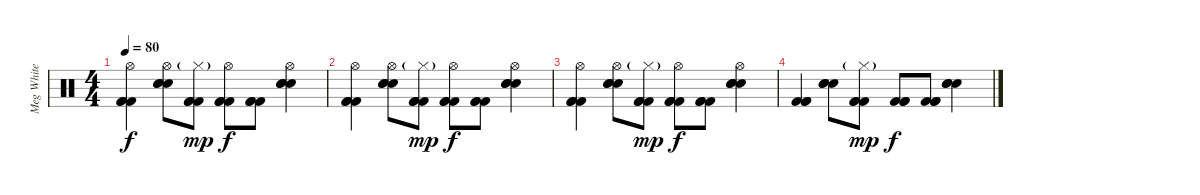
\track ("Meg White" "Meg White") {instrument percussion}
\staff {score}
\articulation defaults
\ts (4 4)
\tempo 80
\clef neutral
\ks c
("Hi-Hat (open)" "Kick (hit) 2" "Kick (hit) 2" "Kick (hit) 2").4{dy f} ("Hi-Hat (open)" "Electric Snare (hit)" "Electric Snare (hit)" "Electric Snare (hit)").8 ("Hi-Hat (closed)"{g} "Kick (hit) 2" "Kick (hit) 2" "Kick (hit) 2").8{dy mp} ("Hi-Hat (open)" "Kick (hit) 2" "Kick (hit) 2" "Kick (hit) 2").8{dy f} ("Kick (hit) 2" "Kick (hit) 2" "Kick (hit) 2").8 ("Hi-Hat (open)" "Electric Snare (hit)" "Electric Snare (hit)" "Electric Snare (hit)").4 |
("Hi-Hat (open)" "Kick (hit) 2" "Kick (hit) 2" "Kick (hit) 2").4 ("Hi-Hat (open)" "Electric Snare (hit)" "Electric Snare (hit)" "Electric Snare (hit)").8 ("Hi-Hat (closed)"{g} "Kick (hit) 2" "Kick (hit) 2" "Kick (hit) 2").8{dy mp} ("Hi-Hat (open)" "Kick (hit) 2" "Kick (hit) 2" "Kick (hit) 2").8{dy f} ("Kick (hit) 2" "Kick (hit) 2" "Kick (hit) 2").8 ("Hi-Hat (open)" "Electric Snare (hit)" "Electric Snare (hit)" "Electric Snare (hit)").4 |
("Hi-Hat (open)" "Kick (hit) 2" "Kick (hit) 2" "Kick (hit) 2").4 ("Hi-Hat (open)" "Electric Snare (hit)" "Electric Snare (hit)" "Electric Snare (hit)").8 ("Hi-Hat (closed)"{g} "Kick (hit) 2" "Kick (hit) 2" "Kick (hit) 2").8{dy mp} ("Hi-Hat (open)" "Kick (hit) 2" "Kick (hit) 2" "Kick (hit) 2").8{dy f} ("Kick (hit) 2" "Kick (hit) 2" "Kick (hit) 2").8 ("Hi-Hat (open)" "Electric Snare (hit)" "Electric Snare (hit)" "Electric Snare (hit)").4 |
("Kick (hit) 2" "Kick (hit) 2" "Kick (hit) 2").4 ("Electric Snare (hit)" "Electric Snare (hit)" "Electric Snare (hit)").8 ("Hi-Hat (closed)"{g} "Kick (hit) 2" "Kick (hit) 2" "Kick (hit) 2").8{dy mp} ("Kick (hit) 2" "Kick (hit) 2" "Kick (hit) 2").8{dy f} ("Kick (hit) 2" "Kick (hit) 2" "Kick (hit) 2").8 ("Electric Snare (hit)" "Electric Snare (hit)" "Electric Snare (hit)").4
